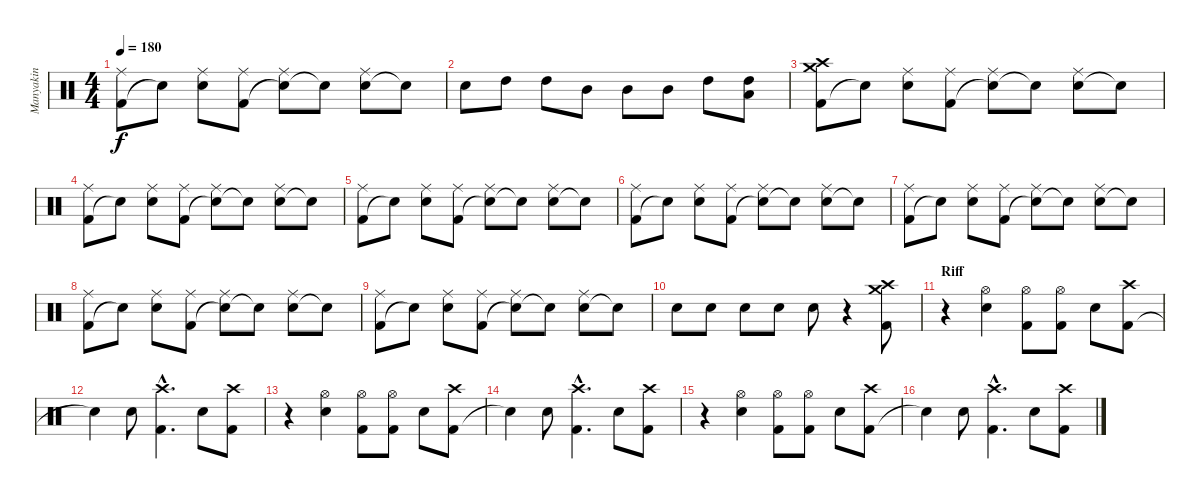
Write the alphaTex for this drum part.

\track ("Manyakin" "Manyakin") {instrument percussion}
\staff {score}
\articulation defaults
\ts (4 4)
\tempo 180
\clef neutral
\ks c
("Kick (hit) 2" "Ride (middle)").8{dy f} "Snare (hit)"{t}.8 ("Snare (hit) 2" "Ride (middle)").8 ("Kick (hit) 2" "Ride (middle)").8 ("Snare (hit)"{t} "Ride (middle)").8 "Snare (hit)"{t}.8 ("Snare (hit) 2" "Ride (middle)").8 "Snare (hit) 2"{t}.8 |
"Electric Snare (hit)".8 "High Tom (hit)".8 "High Tom (hit)".8 "Mid Tom (hit)".8 "Mid Tom (hit)".8 "Mid Tom (hit)".8 "High Tom (hit)".8 ("High Tom (hit)" "Low Tom (hit)").8 |
("Kick (hit) 2" "Crash high (hit)" "Crash medium (hit)").8 "Snare (hit)"{t}.8 ("Snare (hit) 2" "Ride (middle)").8 ("Kick (hit) 2" "Ride (middle)").8 ("Snare (hit)"{t} "Ride (middle)").8 "Snare (hit)"{t}.8 ("Snare (hit) 2" "Ride (middle)").8 "Snare (hit) 2"{t}.8 |
("Kick (hit) 2" "Ride (middle)").8 "Snare (hit)"{t}.8 ("Snare (hit) 2" "Ride (middle)").8 ("Kick (hit) 2" "Ride (middle)").8 ("Snare (hit)"{t} "Ride (middle)").8 "Snare (hit)"{t}.8 ("Snare (hit) 2" "Ride (middle)").8 "Snare (hit) 2"{t}.8 |
("Kick (hit) 2" "Ride (middle)").8 "Snare (hit)"{t}.8 ("Snare (hit) 2" "Ride (middle)").8 ("Kick (hit) 2" "Ride (middle)").8 ("Snare (hit)"{t} "Ride (middle)").8 "Snare (hit)"{t}.8 ("Snare (hit) 2" "Ride (middle)").8 "Snare (hit) 2"{t}.8 |
("Kick (hit) 2" "Ride (middle)").8 "Snare (hit)"{t}.8 ("Snare (hit) 2" "Ride (middle)").8 ("Kick (hit) 2" "Ride (middle)").8 ("Snare (hit)"{t} "Ride (middle)").8 "Snare (hit)"{t}.8 ("Snare (hit) 2" "Ride (middle)").8 "Snare (hit) 2"{t}.8 |
("Kick (hit) 2" "Ride (middle)").8 "Snare (hit)"{t}.8 ("Snare (hit) 2" "Ride (middle)").8 ("Kick (hit) 2" "Ride (middle)").8 ("Snare (hit)"{t} "Ride (middle)").8 "Snare (hit)"{t}.8 ("Snare (hit) 2" "Ride (middle)").8 "Snare (hit) 2"{t}.8 |
("Kick (hit) 2" "Ride (middle)").8 "Snare (hit)"{t}.8 ("Snare (hit) 2" "Ride (middle)").8 ("Kick (hit) 2" "Ride (middle)").8 ("Snare (hit)"{t} "Ride (middle)").8 "Snare (hit)"{t}.8 ("Snare (hit) 2" "Ride (middle)").8 "Snare (hit) 2"{t}.8 |
("Kick (hit) 2" "Ride (middle)").8 "Snare (hit)"{t}.8 ("Snare (hit) 2" "Ride (middle)").8 ("Kick (hit) 2" "Ride (middle)").8 ("Snare (hit)"{t} "Ride (middle)").8 "Snare (hit)"{t}.8 ("Snare (hit) 2" "Ride (middle)").8 "Snare (hit) 2"{t}.8 |
"Snare (hit) 2".8 "Snare (hit) 2".8 "Snare (hit) 2".8 "Snare (hit) 2".8 "Snare (hit) 2".8 r.4 ("Kick (hit) 2" "Crash high (hit)" "Crash medium (hit)").8 |
\section ("" "Riff")
r.4 ("Snare (hit) 2" "Hi-Hat (open)").4 ("Kick (hit) 2" "Hi-Hat (open)").8 ("Hi-Hat (open)" "Kick (hit) 2").8 "Snare (hit) 2".8 ("Kick (hit) 2" "Crash high (hit)").8 |
"Snare (hit)"{t}.4 "Snare (hit) 2".8 ("Kick (hit) 2"{hac} "Crash high (hit)"{hac}).4{d} "Snare (hit) 2".8 ("Kick (hit) 2" "Crash high (hit)").8 |
r.4 ("Snare (hit) 2" "Hi-Hat (open)").4 ("Kick (hit) 2" "Hi-Hat (open)").8 ("Hi-Hat (open)" "Kick (hit) 2").8 "Snare (hit) 2".8 ("Kick (hit) 2" "Crash high (hit)").8 |
"Snare (hit)"{t}.4 "Snare (hit) 2".8 ("Kick (hit) 2"{hac} "Crash high (hit)"{hac}).4{d} "Snare (hit) 2".8 ("Kick (hit) 2" "Crash high (hit)").8 |
r.4 ("Snare (hit) 2" "Hi-Hat (open)").4 ("Kick (hit) 2" "Hi-Hat (open)").8 ("Kick (hit) 2" "Hi-Hat (open)").8 "Snare (hit) 2".8 ("Kick (hit) 2" "Crash high (hit)").8 |
"Snare (hit)"{t}.4 "Snare (hit) 2".8 ("Kick (hit) 2"{hac} "Crash high (hit)"{hac}).4{d} "Snare (hit) 2".8 ("Kick (hit) 2" "Crash high (hit)").8
